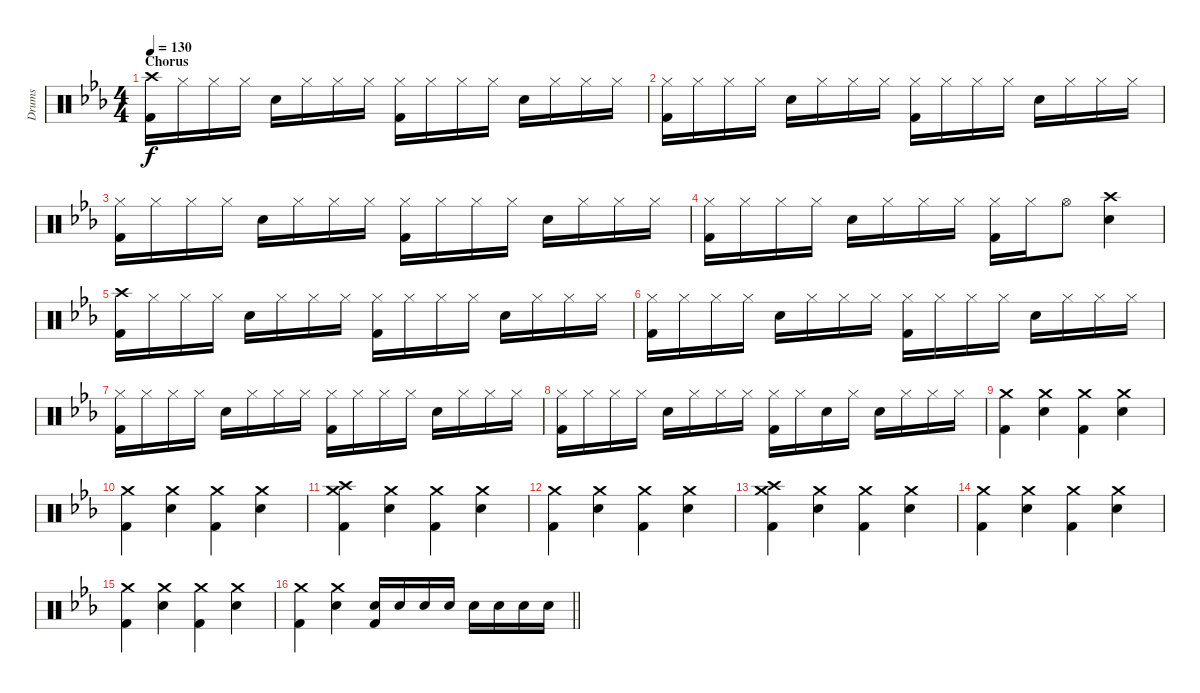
\track ("Drums" "Drums") {instrument percussion}
\staff {score}
\articulation defaults
\ts (4 4)
\section ("" "Chorus")
\tempo 130
\clef neutral
\ks eb
("Crash high (hit)" "Kick (hit) 2").16{dy f} "Hi-Hat (closed)".16 "Hi-Hat (closed)".16 "Hi-Hat (closed)".16 "Electric Snare (hit)".16 "Hi-Hat (closed)".16 "Hi-Hat (closed)".16 "Hi-Hat (closed)".16 ("Hi-Hat (closed)" "Kick (hit) 2").16 "Hi-Hat (closed)".16 "Hi-Hat (closed)".16 "Hi-Hat (closed)".16 "Electric Snare (hit)".16 "Hi-Hat (closed)".16 "Hi-Hat (closed)".16 "Hi-Hat (closed)".16 |
("Hi-Hat (closed)" "Kick (hit) 2").16 "Hi-Hat (closed)".16 "Hi-Hat (closed)".16 "Hi-Hat (closed)".16 "Electric Snare (hit)".16 "Hi-Hat (closed)".16 "Hi-Hat (closed)".16 "Hi-Hat (closed)".16 ("Hi-Hat (closed)" "Kick (hit) 2").16 "Hi-Hat (closed)".16 "Hi-Hat (closed)".16 "Hi-Hat (closed)".16 "Electric Snare (hit)".16 "Hi-Hat (closed)".16 "Hi-Hat (closed)".16 "Hi-Hat (closed)".16 |
("Hi-Hat (closed)" "Kick (hit) 2").16 "Hi-Hat (closed)".16 "Hi-Hat (closed)".16 "Hi-Hat (closed)".16 "Electric Snare (hit)".16 "Hi-Hat (closed)".16 "Hi-Hat (closed)".16 "Hi-Hat (closed)".16 ("Hi-Hat (closed)" "Kick (hit) 2").16 "Hi-Hat (closed)".16 "Hi-Hat (closed)".16 "Hi-Hat (closed)".16 "Electric Snare (hit)".16 "Hi-Hat (closed)".16 "Hi-Hat (closed)".16 "Hi-Hat (closed)".16 |
("Hi-Hat (closed)" "Kick (hit) 2").16 "Hi-Hat (closed)".16 "Hi-Hat (closed)".16 "Hi-Hat (closed)".16 "Electric Snare (hit)".16 "Hi-Hat (closed)".16 "Hi-Hat (closed)".16 "Hi-Hat (closed)".16 ("Hi-Hat (closed)" "Kick (hit) 2").16 "Hi-Hat (closed)".16 "Hi-Hat (open)".8 ("Crash high (hit)" "Snare (hit) 2").4 |
("Crash high (hit)" "Kick (hit) 2").16 "Hi-Hat (closed)".16 "Hi-Hat (closed)".16 "Hi-Hat (closed)".16 "Electric Snare (hit)".16 "Hi-Hat (closed)".16 "Hi-Hat (closed)".16 "Hi-Hat (closed)".16 ("Hi-Hat (closed)" "Kick (hit) 2").16 "Hi-Hat (closed)".16 "Hi-Hat (closed)".16 "Hi-Hat (closed)".16 "Electric Snare (hit)".16 "Hi-Hat (closed)".16 "Hi-Hat (closed)".16 "Hi-Hat (closed)".16 |
("Hi-Hat (closed)" "Kick (hit) 2").16 "Hi-Hat (closed)".16 "Hi-Hat (closed)".16 "Hi-Hat (closed)".16 "Electric Snare (hit)".16 "Hi-Hat (closed)".16 "Hi-Hat (closed)".16 "Hi-Hat (closed)".16 ("Hi-Hat (closed)" "Kick (hit) 2").16 "Hi-Hat (closed)".16 "Hi-Hat (closed)".16 "Hi-Hat (closed)".16 "Electric Snare (hit)".16 "Hi-Hat (closed)".16 "Hi-Hat (closed)".16 "Hi-Hat (closed)".16 |
("Hi-Hat (closed)" "Kick (hit) 2").16 "Hi-Hat (closed)".16 "Hi-Hat (closed)".16 "Hi-Hat (closed)".16 "Electric Snare (hit)".16 "Hi-Hat (closed)".16 "Hi-Hat (closed)".16 "Hi-Hat (closed)".16 ("Hi-Hat (closed)" "Kick (hit) 2").16 "Hi-Hat (closed)".16 "Hi-Hat (closed)".16 "Hi-Hat (closed)".16 "Electric Snare (hit)".16 "Hi-Hat (closed)".16 "Hi-Hat (closed)".16 "Hi-Hat (closed)".16 |
("Hi-Hat (closed)" "Kick (hit) 2").16 "Hi-Hat (closed)".16 "Hi-Hat (closed)".16 "Hi-Hat (closed)".16 "Electric Snare (hit)".16 "Hi-Hat (closed)".16 "Hi-Hat (closed)".16 "Hi-Hat (closed)".16 ("Hi-Hat (closed)" "Kick (hit) 2").16 "Hi-Hat (closed)".16 "Electric Snare (hit)".16 "Hi-Hat (closed)".16 "Electric Snare (hit)".16 "Hi-Hat (closed)".16 "Hi-Hat (closed)".16 "Hi-Hat (closed)".16 |
("Crash medium (hit)" "Kick (hit) 2").4 ("Crash medium (hit)" "Electric Snare (hit)").4 ("Crash medium (hit)" "Kick (hit) 2").4 ("Crash medium (hit)" "Electric Snare (hit)").4 |
("Crash medium (hit)" "Kick (hit) 2").4 ("Crash medium (hit)" "Electric Snare (hit)").4 ("Crash medium (hit)" "Kick (hit) 2").4 ("Crash medium (hit)" "Electric Snare (hit)").4 |
("Crash medium (hit)" "Kick (hit) 2" "Crash high (hit)").4 ("Crash medium (hit)" "Electric Snare (hit)").4 ("Crash medium (hit)" "Kick (hit) 2").4 ("Crash medium (hit)" "Electric Snare (hit)").4 |
("Crash medium (hit)" "Kick (hit) 2").4 ("Crash medium (hit)" "Electric Snare (hit)").4 ("Crash medium (hit)" "Kick (hit) 2").4 ("Crash medium (hit)" "Electric Snare (hit)").4 |
("Crash medium (hit)" "Kick (hit) 2" "Crash high (hit)").4 ("Crash medium (hit)" "Electric Snare (hit)").4 ("Crash medium (hit)" "Kick (hit) 2").4 ("Crash medium (hit)" "Electric Snare (hit)").4 |
("Crash medium (hit)" "Kick (hit) 2").4 ("Crash medium (hit)" "Electric Snare (hit)").4 ("Crash medium (hit)" "Kick (hit) 2").4 ("Crash medium (hit)" "Electric Snare (hit)").4 |
("Crash medium (hit)" "Kick (hit) 2").4 ("Crash medium (hit)" "Electric Snare (hit)").4 ("Crash medium (hit)" "Kick (hit) 2").4 ("Crash medium (hit)" "Electric Snare (hit)").4 |
\barLineRight lightlight
("Crash medium (hit)" "Kick (hit) 2").4 ("Crash medium (hit)" "Electric Snare (hit)").4 ("Electric Snare (hit)" "Kick (hit) 2").16 "Electric Snare (hit)".16 "Electric Snare (hit)".16 "Electric Snare (hit)".16 "Electric Snare (hit)".16 "Electric Snare (hit)".16 "Electric Snare (hit)".16 "Electric Snare (hit)".16
